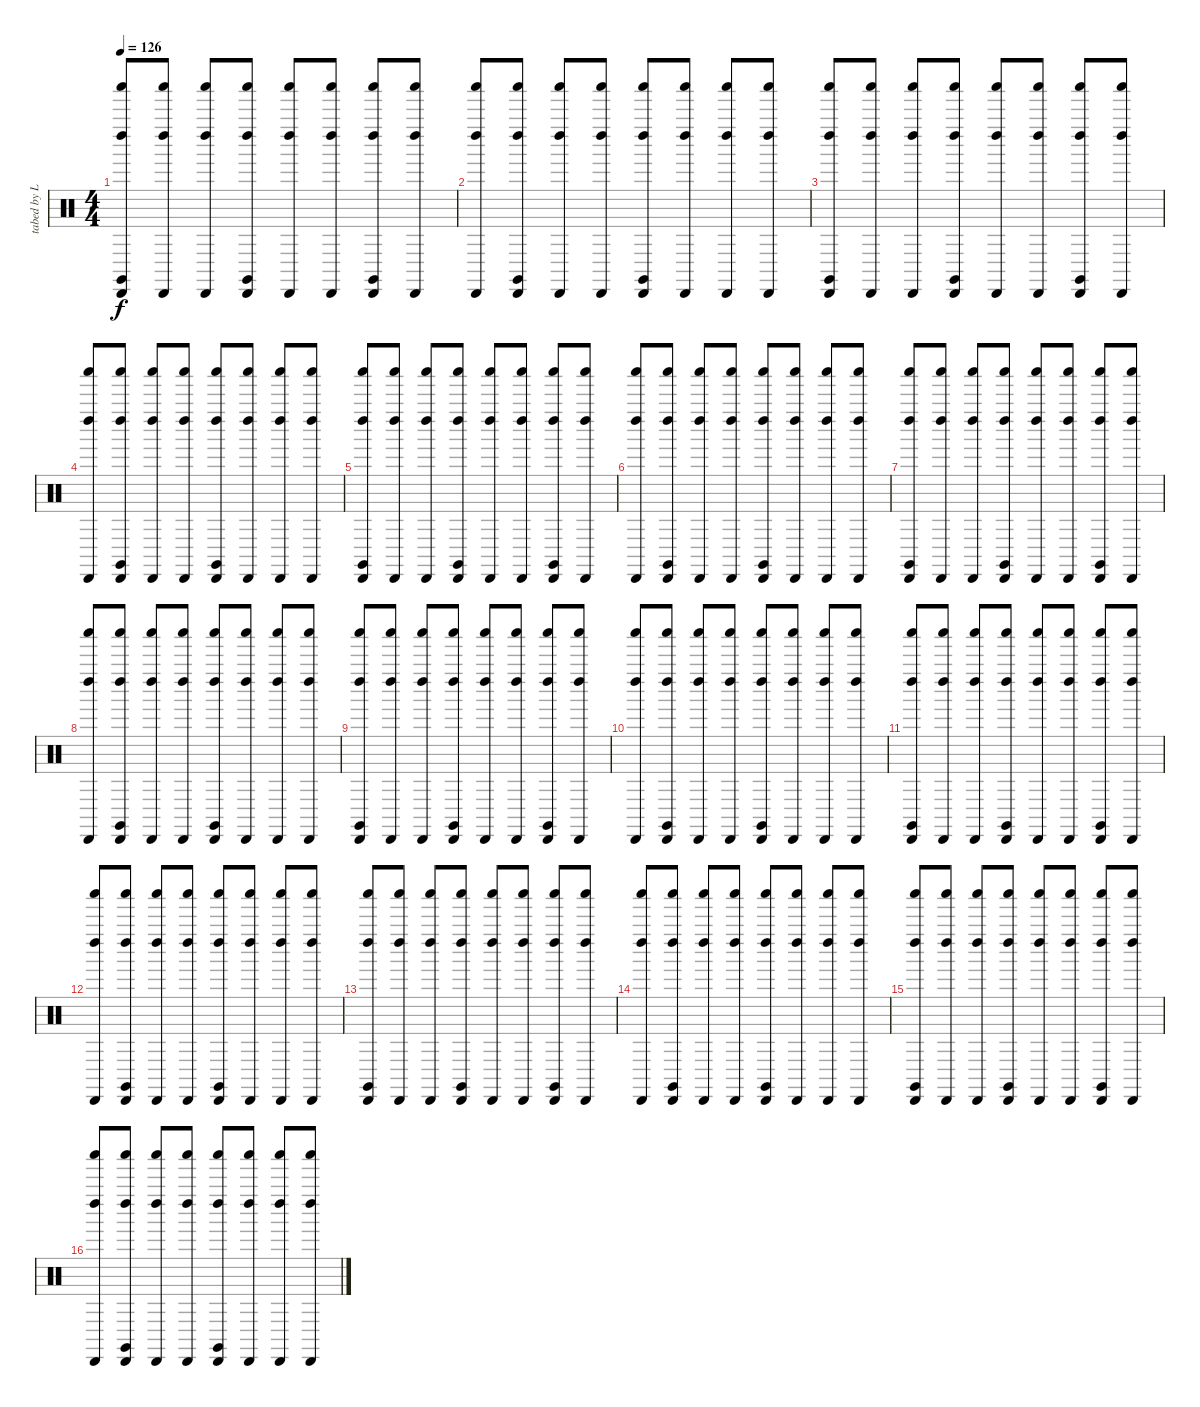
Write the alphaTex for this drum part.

\track ("tabed by Leonid" "tabed by L") {instrument percussion}
\staff {score}
\articulation defaults
\ts (4 4)
\tempo 126
\clef neutral
\ks c
("Left Maraca (hit)" "Shaker (hit)" "Cabasa (hit)" "Claves (hit)").8{dy f} ("Left Maraca (hit)" "Shaker (hit)" "Cabasa (hit)").8 ("Left Maraca (hit)" "Shaker (hit)" "Cabasa (hit)").8 ("Left Maraca (hit)" "Shaker (hit)" "Cabasa (hit)" "Claves (hit)").8 ("Left Maraca (hit)" "Shaker (hit)" "Cabasa (hit)").8 ("Left Maraca (hit)" "Shaker (hit)" "Cabasa (hit)").8 ("Left Maraca (hit)" "Shaker (hit)" "Cabasa (hit)" "Claves (hit)").8 ("Left Maraca (hit)" "Shaker (hit)" "Cabasa (hit)").8 |
("Cabasa (hit)" "Left Maraca (hit)" "Shaker (hit)").8 ("Cabasa (hit)" "Left Maraca (hit)" "Shaker (hit)" "Claves (hit)").8 ("Cabasa (hit)" "Left Maraca (hit)" "Shaker (hit)").8 ("Cabasa (hit)" "Left Maraca (hit)" "Shaker (hit)").8 ("Cabasa (hit)" "Left Maraca (hit)" "Shaker (hit)" "Claves (hit)").8 ("Cabasa (hit)" "Left Maraca (hit)" "Shaker (hit)").8 ("Cabasa (hit)" "Left Maraca (hit)" "Shaker (hit)").8 ("Cabasa (hit)" "Left Maraca (hit)" "Shaker (hit)").8 |
("Cabasa (hit)" "Left Maraca (hit)" "Shaker (hit)" "Claves (hit)").8 ("Cabasa (hit)" "Left Maraca (hit)" "Shaker (hit)").8 ("Cabasa (hit)" "Left Maraca (hit)" "Shaker (hit)").8 ("Cabasa (hit)" "Left Maraca (hit)" "Shaker (hit)" "Claves (hit)").8 ("Cabasa (hit)" "Left Maraca (hit)" "Shaker (hit)").8 ("Cabasa (hit)" "Left Maraca (hit)" "Shaker (hit)").8 ("Cabasa (hit)" "Left Maraca (hit)" "Shaker (hit)" "Claves (hit)").8 ("Cabasa (hit)" "Left Maraca (hit)" "Shaker (hit)").8 |
("Left Maraca (hit)" "Shaker (hit)" "Cabasa (hit)").8 ("Left Maraca (hit)" "Shaker (hit)" "Cabasa (hit)" "Claves (hit)").8 ("Left Maraca (hit)" "Shaker (hit)" "Cabasa (hit)").8 ("Left Maraca (hit)" "Shaker (hit)" "Cabasa (hit)").8 ("Left Maraca (hit)" "Shaker (hit)" "Cabasa (hit)" "Claves (hit)").8 ("Left Maraca (hit)" "Shaker (hit)" "Cabasa (hit)").8 ("Left Maraca (hit)" "Shaker (hit)" "Cabasa (hit)").8 ("Left Maraca (hit)" "Shaker (hit)" "Cabasa (hit)").8 |
("Left Maraca (hit)" "Shaker (hit)" "Cabasa (hit)" "Claves (hit)").8 ("Left Maraca (hit)" "Shaker (hit)" "Cabasa (hit)").8 ("Left Maraca (hit)" "Shaker (hit)" "Cabasa (hit)").8 ("Left Maraca (hit)" "Shaker (hit)" "Cabasa (hit)" "Claves (hit)").8 ("Left Maraca (hit)" "Shaker (hit)" "Cabasa (hit)").8 ("Left Maraca (hit)" "Shaker (hit)" "Cabasa (hit)").8 ("Left Maraca (hit)" "Shaker (hit)" "Cabasa (hit)" "Claves (hit)").8 ("Left Maraca (hit)" "Shaker (hit)" "Cabasa (hit)").8 |
("Left Maraca (hit)" "Cabasa (hit)" "Shaker (hit)").8 ("Left Maraca (hit)" "Cabasa (hit)" "Shaker (hit)" "Claves (hit)").8 ("Left Maraca (hit)" "Cabasa (hit)" "Shaker (hit)").8 ("Left Maraca (hit)" "Cabasa (hit)" "Shaker (hit)").8 ("Left Maraca (hit)" "Cabasa (hit)" "Shaker (hit)" "Claves (hit)").8 ("Left Maraca (hit)" "Cabasa (hit)" "Shaker (hit)").8 ("Left Maraca (hit)" "Cabasa (hit)" "Shaker (hit)").8 ("Left Maraca (hit)" "Cabasa (hit)" "Shaker (hit)").8 |
("Left Maraca (hit)" "Cabasa (hit)" "Shaker (hit)" "Claves (hit)").8 ("Left Maraca (hit)" "Cabasa (hit)" "Shaker (hit)").8 ("Left Maraca (hit)" "Cabasa (hit)" "Shaker (hit)").8 ("Left Maraca (hit)" "Cabasa (hit)" "Shaker (hit)" "Claves (hit)").8 ("Left Maraca (hit)" "Cabasa (hit)" "Shaker (hit)").8 ("Left Maraca (hit)" "Cabasa (hit)" "Shaker (hit)").8 ("Left Maraca (hit)" "Cabasa (hit)" "Shaker (hit)" "Claves (hit)").8 ("Left Maraca (hit)" "Cabasa (hit)" "Shaker (hit)").8 |
("Cabasa (hit)" "Shaker (hit)" "Left Maraca (hit)").8 ("Cabasa (hit)" "Shaker (hit)" "Left Maraca (hit)" "Claves (hit)").8 ("Cabasa (hit)" "Shaker (hit)" "Left Maraca (hit)").8 ("Cabasa (hit)" "Shaker (hit)" "Left Maraca (hit)").8 ("Cabasa (hit)" "Shaker (hit)" "Left Maraca (hit)" "Claves (hit)").8 ("Cabasa (hit)" "Shaker (hit)" "Left Maraca (hit)").8 ("Cabasa (hit)" "Shaker (hit)" "Left Maraca (hit)").8 ("Cabasa (hit)" "Shaker (hit)" "Left Maraca (hit)").8 |
("Cabasa (hit)" "Shaker (hit)" "Left Maraca (hit)" "Claves (hit)").8 ("Cabasa (hit)" "Shaker (hit)" "Left Maraca (hit)").8 ("Cabasa (hit)" "Shaker (hit)" "Left Maraca (hit)").8 ("Cabasa (hit)" "Shaker (hit)" "Left Maraca (hit)" "Claves (hit)").8 ("Cabasa (hit)" "Shaker (hit)" "Left Maraca (hit)").8 ("Cabasa (hit)" "Shaker (hit)" "Left Maraca (hit)").8 ("Cabasa (hit)" "Shaker (hit)" "Left Maraca (hit)" "Claves (hit)").8 ("Cabasa (hit)" "Shaker (hit)" "Left Maraca (hit)").8 |
("Shaker (hit)" "Left Maraca (hit)" "Cabasa (hit)").8 ("Shaker (hit)" "Left Maraca (hit)" "Cabasa (hit)" "Claves (hit)").8 ("Shaker (hit)" "Left Maraca (hit)" "Cabasa (hit)").8 ("Shaker (hit)" "Left Maraca (hit)" "Cabasa (hit)").8 ("Shaker (hit)" "Left Maraca (hit)" "Cabasa (hit)" "Claves (hit)").8 ("Shaker (hit)" "Left Maraca (hit)" "Cabasa (hit)").8 ("Shaker (hit)" "Left Maraca (hit)" "Cabasa (hit)").8 ("Shaker (hit)" "Left Maraca (hit)" "Cabasa (hit)").8 |
("Shaker (hit)" "Left Maraca (hit)" "Cabasa (hit)" "Claves (hit)").8 ("Shaker (hit)" "Left Maraca (hit)" "Cabasa (hit)").8 ("Shaker (hit)" "Left Maraca (hit)" "Cabasa (hit)").8 ("Shaker (hit)" "Left Maraca (hit)" "Cabasa (hit)" "Claves (hit)").8 ("Shaker (hit)" "Left Maraca (hit)" "Cabasa (hit)").8 ("Shaker (hit)" "Left Maraca (hit)" "Cabasa (hit)").8 ("Shaker (hit)" "Left Maraca (hit)" "Cabasa (hit)" "Claves (hit)").8 ("Shaker (hit)" "Left Maraca (hit)" "Cabasa (hit)").8 |
("Shaker (hit)" "Left Maraca (hit)" "Cabasa (hit)").8 ("Shaker (hit)" "Left Maraca (hit)" "Cabasa (hit)" "Claves (hit)").8 ("Shaker (hit)" "Left Maraca (hit)" "Cabasa (hit)").8 ("Shaker (hit)" "Left Maraca (hit)" "Cabasa (hit)").8 ("Shaker (hit)" "Left Maraca (hit)" "Cabasa (hit)" "Claves (hit)").8 ("Shaker (hit)" "Left Maraca (hit)" "Cabasa (hit)").8 ("Shaker (hit)" "Left Maraca (hit)" "Cabasa (hit)").8 ("Shaker (hit)" "Left Maraca (hit)" "Cabasa (hit)").8 |
("Shaker (hit)" "Left Maraca (hit)" "Cabasa (hit)" "Claves (hit)").8 ("Shaker (hit)" "Left Maraca (hit)" "Cabasa (hit)").8 ("Shaker (hit)" "Left Maraca (hit)" "Cabasa (hit)").8 ("Shaker (hit)" "Left Maraca (hit)" "Cabasa (hit)" "Claves (hit)").8 ("Shaker (hit)" "Left Maraca (hit)" "Cabasa (hit)").8 ("Shaker (hit)" "Left Maraca (hit)" "Cabasa (hit)").8 ("Shaker (hit)" "Left Maraca (hit)" "Cabasa (hit)" "Claves (hit)").8 ("Shaker (hit)" "Left Maraca (hit)" "Cabasa (hit)").8 |
("Shaker (hit)" "Cabasa (hit)" "Left Maraca (hit)").8 ("Shaker (hit)" "Cabasa (hit)" "Left Maraca (hit)" "Claves (hit)").8 ("Shaker (hit)" "Cabasa (hit)" "Left Maraca (hit)").8 ("Shaker (hit)" "Cabasa (hit)" "Left Maraca (hit)").8 ("Shaker (hit)" "Cabasa (hit)" "Left Maraca (hit)" "Claves (hit)").8 ("Shaker (hit)" "Cabasa (hit)" "Left Maraca (hit)").8 ("Shaker (hit)" "Cabasa (hit)" "Left Maraca (hit)").8 ("Shaker (hit)" "Cabasa (hit)" "Left Maraca (hit)").8 |
("Shaker (hit)" "Cabasa (hit)" "Left Maraca (hit)" "Claves (hit)").8 ("Shaker (hit)" "Cabasa (hit)" "Left Maraca (hit)").8 ("Shaker (hit)" "Cabasa (hit)" "Left Maraca (hit)").8 ("Shaker (hit)" "Cabasa (hit)" "Left Maraca (hit)" "Claves (hit)").8 ("Shaker (hit)" "Cabasa (hit)" "Left Maraca (hit)").8 ("Shaker (hit)" "Cabasa (hit)" "Left Maraca (hit)").8 ("Shaker (hit)" "Cabasa (hit)" "Left Maraca (hit)" "Claves (hit)").8 ("Shaker (hit)" "Cabasa (hit)" "Left Maraca (hit)").8 |
("Shaker (hit)" "Cabasa (hit)" "Left Maraca (hit)").8 ("Shaker (hit)" "Cabasa (hit)" "Left Maraca (hit)" "Claves (hit)").8 ("Shaker (hit)" "Cabasa (hit)" "Left Maraca (hit)").8 ("Shaker (hit)" "Cabasa (hit)" "Left Maraca (hit)").8 ("Shaker (hit)" "Cabasa (hit)" "Left Maraca (hit)" "Claves (hit)").8 ("Shaker (hit)" "Cabasa (hit)" "Left Maraca (hit)").8 ("Shaker (hit)" "Cabasa (hit)" "Left Maraca (hit)").8 ("Shaker (hit)" "Cabasa (hit)" "Left Maraca (hit)").8
